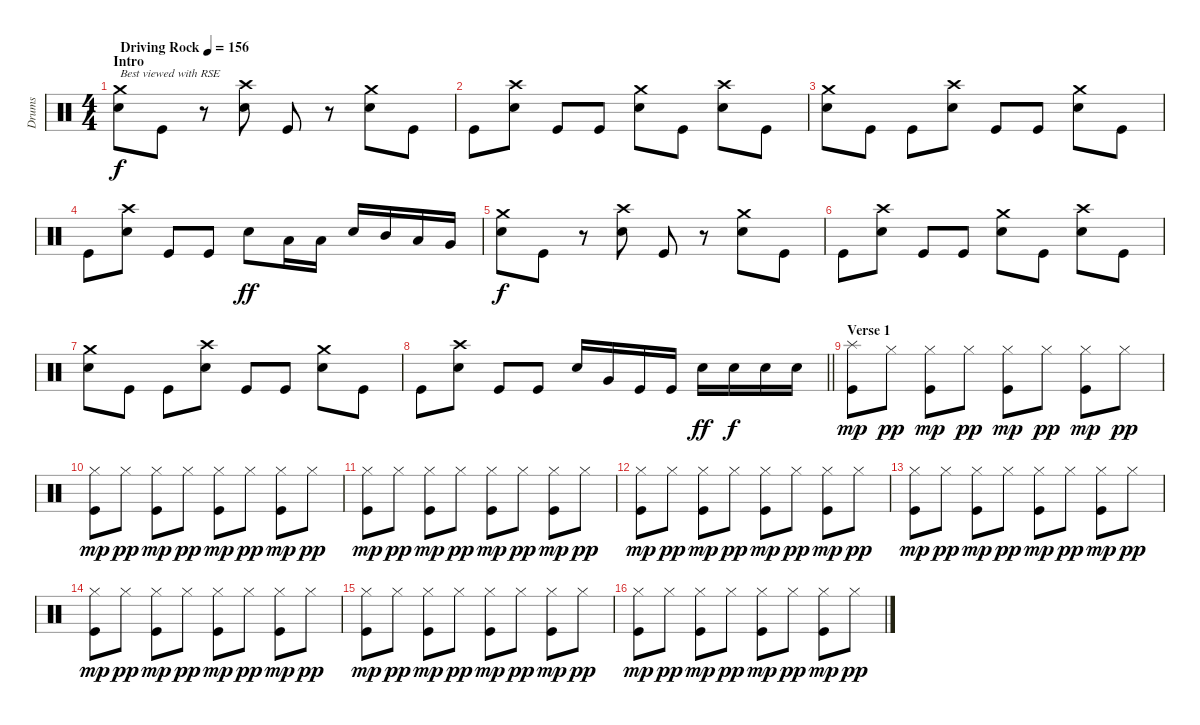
\track ("Drums" "Drums") {instrument percussion}
\staff {score}
\articulation defaults
\ts (4 4)
\section ("" "Intro")
\tempo (156 "Driving Rock")
\clef neutral
\ks c
("Crash medium (hit)" "Snare (hit) 2").8{txt "Best viewed with RSE" dy f} "Kick (hit)".8 r.8 ("Crash high (hit)" "Snare (hit) 2").8 "Kick (hit)".8 r.8 ("Crash medium (hit)" "Snare (hit) 2").8 "Kick (hit)".8 |
"Kick (hit)".8 ("Crash high (hit)" "Snare (hit) 2").8 "Kick (hit)".8 "Kick (hit)".8 ("Crash medium (hit)" "Snare (hit) 2").8 "Kick (hit)".8 ("Crash high (hit)" "Snare (hit) 2").8 "Kick (hit)".8 |
("Crash medium (hit)" "Snare (hit) 2").8 "Kick (hit)".8 "Kick (hit)".8 ("Crash high (hit)" "Snare (hit) 2").8 "Kick (hit)".8 "Kick (hit)".8 ("Crash medium (hit)" "Snare (hit) 2").8 "Kick (hit)".8 |
"Kick (hit)".8 ("Crash high (hit)" "Snare (hit) 2").8 "Kick (hit)".8 "Kick (hit)".8 "Snare (hit) 2".8{dy ff} "Low Floor Tom (hit)".16 "Low Floor Tom (hit)".16 "Snare (hit) 2".16 "Mid Tom (hit)".16 "Low Floor Tom (hit)".16 "Very Low Tom (hit)".16 |
("Crash medium (hit)" "Snare (hit) 2").8{dy f} "Kick (hit)".8 r.8 ("Crash high (hit)" "Snare (hit) 2").8 "Kick (hit)".8 r.8 ("Crash medium (hit)" "Snare (hit) 2").8 "Kick (hit)".8 |
"Kick (hit)".8 ("Crash high (hit)" "Snare (hit) 2").8 "Kick (hit)".8 "Kick (hit)".8 ("Crash medium (hit)" "Snare (hit) 2").8 "Kick (hit)".8 ("Crash high (hit)" "Snare (hit) 2").8 "Kick (hit)".8 |
("Crash medium (hit)" "Snare (hit) 2").8 "Kick (hit)".8 "Kick (hit)".8 ("Crash high (hit)" "Snare (hit) 2").8 "Kick (hit)".8 "Kick (hit)".8 ("Crash medium (hit)" "Snare (hit) 2").8 "Kick (hit)".8 |
\barLineRight lightlight "Kick (hit)".8
("Crash high (hit)" "Snare (hit) 2").8 "Kick (hit)".8 "Kick (hit)".8 "Snare (hit) 2".16 "Very Low Tom (hit)".16 "Kick (hit)".16 "Kick (hit)".16 "Snare (hit) 2".16{dy ff} "Snare (hit) 2".16{dy f} "Snare (hit) 2".16 "Snare (hit) 2".16 |
\section ("" "Verse 1")
("Splash (hit)" "Kick (hit)").8{dy mp} "Hi-Hat (closed)".8{dy pp} ("Hi-Hat (closed)" "Kick (hit)").8{dy mp} "Hi-Hat (closed)".8{dy pp} ("Hi-Hat (closed)" "Kick (hit)").8{dy mp} "Hi-Hat (closed)".8{dy pp} ("Hi-Hat (closed)" "Kick (hit)").8{dy mp} "Hi-Hat (closed)".8{dy pp} |
("Hi-Hat (closed)" "Kick (hit)").8{dy mp} "Hi-Hat (closed)".8{dy pp} ("Hi-Hat (closed)" "Kick (hit)").8{dy mp} "Hi-Hat (closed)".8{dy pp} ("Hi-Hat (closed)" "Kick (hit)").8{dy mp} "Hi-Hat (closed)".8{dy pp} ("Hi-Hat (closed)" "Kick (hit)").8{dy mp} "Hi-Hat (closed)".8{dy pp} |
("Hi-Hat (closed)" "Kick (hit)").8{dy mp} "Hi-Hat (closed)".8{dy pp} ("Hi-Hat (closed)" "Kick (hit)").8{dy mp} "Hi-Hat (closed)".8{dy pp} ("Hi-Hat (closed)" "Kick (hit)").8{dy mp} "Hi-Hat (closed)".8{dy pp} ("Hi-Hat (closed)" "Kick (hit)").8{dy mp} "Hi-Hat (closed)".8{dy pp} |
("Hi-Hat (closed)" "Kick (hit)").8{dy mp} "Hi-Hat (closed)".8{dy pp} ("Hi-Hat (closed)" "Kick (hit)").8{dy mp} "Hi-Hat (closed)".8{dy pp} ("Hi-Hat (closed)" "Kick (hit)").8{dy mp} "Hi-Hat (closed)".8{dy pp} ("Hi-Hat (closed)" "Kick (hit)").8{dy mp} "Hi-Hat (closed)".8{dy pp} |
("Hi-Hat (closed)" "Kick (hit)").8{dy mp} "Hi-Hat (closed)".8{dy pp} ("Hi-Hat (closed)" "Kick (hit)").8{dy mp} "Hi-Hat (closed)".8{dy pp} ("Hi-Hat (closed)" "Kick (hit)").8{dy mp} "Hi-Hat (closed)".8{dy pp} ("Hi-Hat (closed)" "Kick (hit)").8{dy mp} "Hi-Hat (closed)".8{dy pp} |
("Hi-Hat (closed)" "Kick (hit)").8{dy mp} "Hi-Hat (closed)".8{dy pp} ("Hi-Hat (closed)" "Kick (hit)").8{dy mp} "Hi-Hat (closed)".8{dy pp} ("Hi-Hat (closed)" "Kick (hit)").8{dy mp} "Hi-Hat (closed)".8{dy pp} ("Hi-Hat (closed)" "Kick (hit)").8{dy mp} "Hi-Hat (closed)".8{dy pp} |
("Hi-Hat (closed)" "Kick (hit)").8{dy mp} "Hi-Hat (closed)".8{dy pp} ("Hi-Hat (closed)" "Kick (hit)").8{dy mp} "Hi-Hat (closed)".8{dy pp} ("Hi-Hat (closed)" "Kick (hit)").8{dy mp} "Hi-Hat (closed)".8{dy pp} ("Hi-Hat (closed)" "Kick (hit)").8{dy mp} "Hi-Hat (closed)".8{dy pp} |
("Hi-Hat (closed)" "Kick (hit)").8{dy mp} "Hi-Hat (closed)".8{dy pp} ("Hi-Hat (closed)" "Kick (hit)").8{dy mp} "Hi-Hat (closed)".8{dy pp} ("Hi-Hat (closed)" "Kick (hit)").8{dy mp} "Hi-Hat (closed)".8{dy pp} ("Hi-Hat (closed)" "Kick (hit)").8{dy mp} "Hi-Hat (closed)".8{dy pp}
